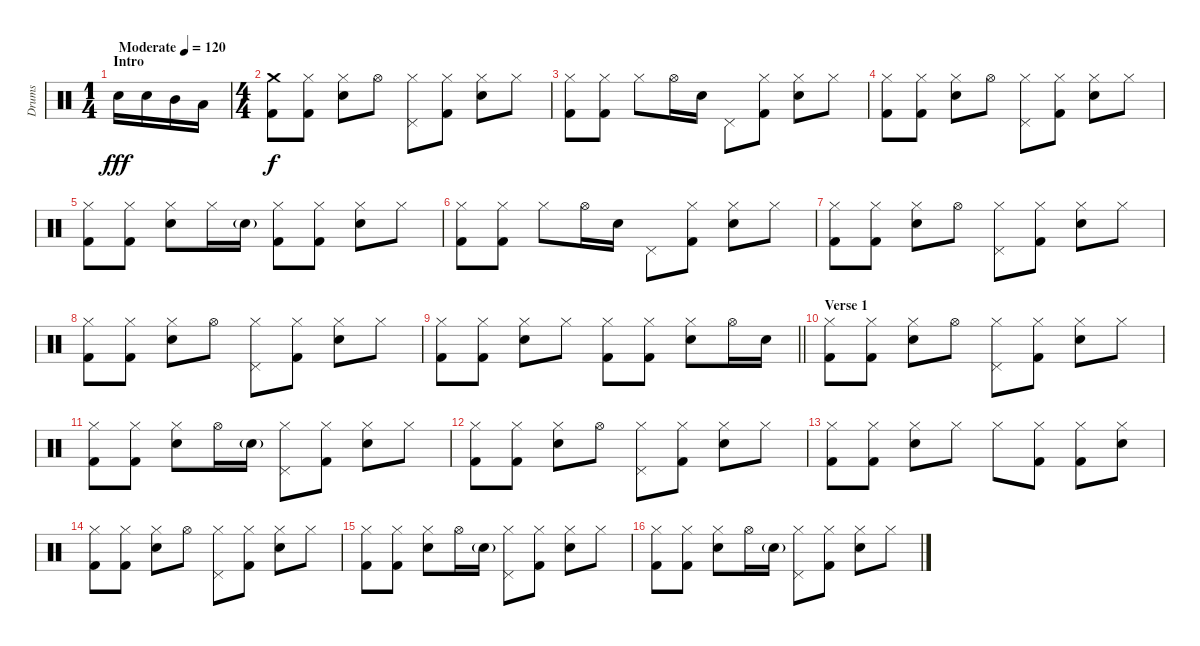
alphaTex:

\track ("Drums" "Drums") {instrument percussion}
\staff {score}
\articulation defaults
\ts (1 4)
\section ("" "Intro")
\tempo (120 "Moderate")
\clef neutral
\ks c "Electric Snare (hit)".16{dy fff volume 16} "Electric Snare (hit)".16 "Mid Tom (hit)".16 "Low Tom (hit)".16
|
\ts (4 4)
("Crash medium (hit)" "Kick (hit) 2").8{dy f volume 13} ("Hi-Hat (closed)" "Kick (hit) 2").8 ("Hi-Hat (closed)" "Electric Snare (hit)").8 "Hi-Hat (open)".8 ("Hi-Hat (closed)" "Pedal Hi-Hat (hit)").8 ("Hi-Hat (closed)" "Kick (hit) 2").8 ("Hi-Hat (closed)" "Electric Snare (hit)").8 "Hi-Hat (closed)".8 |
("Hi-Hat (closed)" "Kick (hit) 2").8 ("Hi-Hat (closed)" "Kick (hit) 2").8 "Hi-Hat (closed)".8 "Hi-Hat (open)".16 "Electric Snare (hit)".16 "Pedal Hi-Hat (hit)".8 ("Hi-Hat (closed)" "Kick (hit) 2").8 ("Hi-Hat (closed)" "Electric Snare (hit)").8 "Hi-Hat (closed)".8 |
("Hi-Hat (closed)" "Kick (hit) 2").8 ("Hi-Hat (closed)" "Kick (hit) 2").8 ("Hi-Hat (closed)" "Electric Snare (hit)").8 "Hi-Hat (open)".8 ("Hi-Hat (closed)" "Pedal Hi-Hat (hit)").8 ("Hi-Hat (closed)" "Kick (hit) 2").8 ("Hi-Hat (closed)" "Electric Snare (hit)").8 "Hi-Hat (closed)".8 |
("Hi-Hat (closed)" "Kick (hit) 2").8 ("Hi-Hat (closed)" "Kick (hit) 2").8 ("Hi-Hat (closed)" "Electric Snare (hit)").8 "Hi-Hat (closed)".16 "Electric Snare (hit)"{g}.16 ("Hi-Hat (closed)" "Kick (hit) 2").8 ("Hi-Hat (closed)" "Kick (hit) 2").8 ("Hi-Hat (closed)" "Electric Snare (hit)").8 "Hi-Hat (closed)".8 |
("Hi-Hat (closed)" "Kick (hit) 2").8 ("Hi-Hat (closed)" "Kick (hit) 2").8 "Hi-Hat (closed)".8 "Hi-Hat (open)".16 "Electric Snare (hit)".16 "Pedal Hi-Hat (hit)".8 ("Hi-Hat (closed)" "Kick (hit) 2").8 ("Hi-Hat (closed)" "Electric Snare (hit)").8 "Hi-Hat (closed)".8 |
("Hi-Hat (closed)" "Kick (hit) 2").8 ("Hi-Hat (closed)" "Kick (hit) 2").8 ("Hi-Hat (closed)" "Electric Snare (hit)").8 "Hi-Hat (open)".8 ("Hi-Hat (closed)" "Pedal Hi-Hat (hit)").8 ("Hi-Hat (closed)" "Kick (hit) 2").8 ("Hi-Hat (closed)" "Electric Snare (hit)").8 "Hi-Hat (closed)".8 |
("Hi-Hat (closed)" "Kick (hit) 2").8 ("Hi-Hat (closed)" "Kick (hit) 2").8 ("Hi-Hat (closed)" "Electric Snare (hit)").8 "Hi-Hat (open)".8 ("Hi-Hat (closed)" "Pedal Hi-Hat (hit)").8 ("Hi-Hat (closed)" "Kick (hit) 2").8 ("Hi-Hat (closed)" "Electric Snare (hit)").8 "Hi-Hat (closed)".8 |
\barLineRight lightlight
("Hi-Hat (closed)" "Kick (hit) 2").8 ("Hi-Hat (closed)" "Kick (hit) 2").8 ("Hi-Hat (closed)" "Electric Snare (hit)").8 "Hi-Hat (closed)".8 ("Hi-Hat (closed)" "Kick (hit) 2").8 ("Hi-Hat (closed)" "Kick (hit) 2").8 ("Hi-Hat (closed)" "Electric Snare (hit)").8 "Hi-Hat (open)".16 "Electric Snare (hit)".16 |
\section ("" "Verse 1")
("Hi-Hat (closed)" "Kick (hit) 2").8 ("Hi-Hat (closed)" "Kick (hit) 2").8 ("Hi-Hat (closed)" "Electric Snare (hit)").8 "Hi-Hat (open)".8 ("Hi-Hat (closed)" "Pedal Hi-Hat (hit)").8 ("Hi-Hat (closed)" "Kick (hit) 2").8 ("Hi-Hat (closed)" "Electric Snare (hit)").8 "Hi-Hat (closed)".8 |
("Hi-Hat (closed)" "Kick (hit) 2").8 ("Hi-Hat (closed)" "Kick (hit) 2").8 ("Hi-Hat (closed)" "Electric Snare (hit)").8 "Hi-Hat (open)".16 "Electric Snare (hit)"{g}.16 ("Hi-Hat (closed)" "Pedal Hi-Hat (hit)").8 ("Hi-Hat (closed)" "Kick (hit) 2").8 ("Hi-Hat (closed)" "Electric Snare (hit)").8 "Hi-Hat (closed)".8 |
("Hi-Hat (closed)" "Kick (hit) 2").8 ("Hi-Hat (closed)" "Kick (hit) 2").8 ("Hi-Hat (closed)" "Electric Snare (hit)").8 "Hi-Hat (open)".8 ("Hi-Hat (closed)" "Pedal Hi-Hat (hit)").8 ("Hi-Hat (closed)" "Kick (hit) 2").8 ("Hi-Hat (closed)" "Electric Snare (hit)").8 "Hi-Hat (closed)".8 |
("Hi-Hat (closed)" "Kick (hit) 2").8 ("Hi-Hat (closed)" "Kick (hit) 2").8 ("Hi-Hat (closed)" "Electric Snare (hit)").8 "Hi-Hat (closed)".8 "Hi-Hat (closed)".8 ("Hi-Hat (closed)" "Kick (hit) 2").8 ("Hi-Hat (closed)" "Kick (hit) 2").8 ("Hi-Hat (closed)" "Electric Snare (hit)").8 |
("Hi-Hat (closed)" "Kick (hit) 2").8 ("Hi-Hat (closed)" "Kick (hit) 2").8 ("Hi-Hat (closed)" "Electric Snare (hit)").8 "Hi-Hat (open)".8 ("Hi-Hat (closed)" "Pedal Hi-Hat (hit)").8 ("Hi-Hat (closed)" "Kick (hit) 2").8 ("Hi-Hat (closed)" "Electric Snare (hit)").8 "Hi-Hat (closed)".8 |
("Hi-Hat (closed)" "Kick (hit) 2").8 ("Hi-Hat (closed)" "Kick (hit) 2").8 ("Hi-Hat (closed)" "Electric Snare (hit)").8 "Hi-Hat (open)".16 "Electric Snare (hit)"{g}.16 ("Hi-Hat (closed)" "Pedal Hi-Hat (hit)").8 ("Hi-Hat (closed)" "Kick (hit) 2").8 ("Hi-Hat (closed)" "Electric Snare (hit)").8 "Hi-Hat (closed)".8 |
("Hi-Hat (closed)" "Kick (hit) 2").8 ("Hi-Hat (closed)" "Kick (hit) 2").8 ("Hi-Hat (closed)" "Electric Snare (hit)").8 "Hi-Hat (open)".16 "Electric Snare (hit)"{g}.16 ("Hi-Hat (closed)" "Pedal Hi-Hat (hit)").8 ("Hi-Hat (closed)" "Kick (hit) 2").8 ("Hi-Hat (closed)" "Electric Snare (hit)").8 "Hi-Hat (closed)".8
